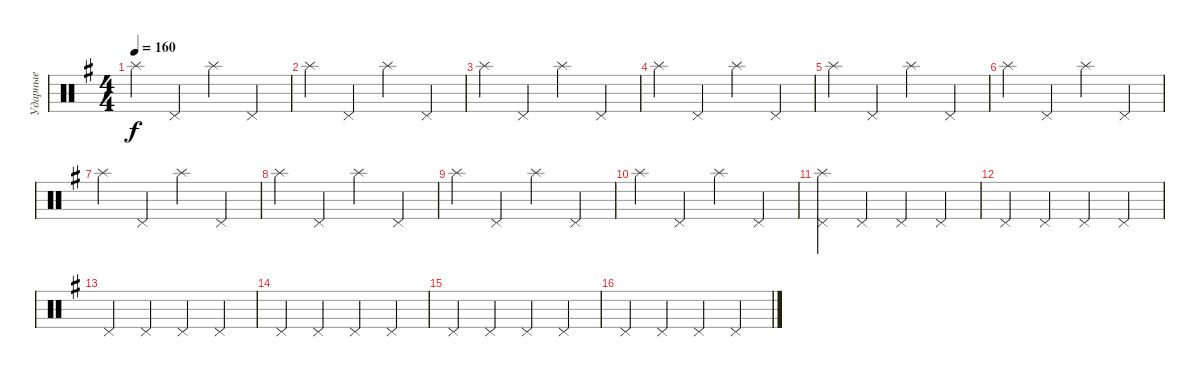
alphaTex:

\track ("Ударные" "Ударные") {instrument percussion}
\staff {score}
\articulation defaults
\ts (4 4)
\tempo 160
\clef neutral
\ks g "Splash (hit)".4{dy f} "Pedal Hi-Hat (hit)".4 "Splash (hit)".4 "Pedal Hi-Hat (hit)".4
|
"Splash (hit)".4 "Pedal Hi-Hat (hit)".4 "Splash (hit)".4 "Pedal Hi-Hat (hit)".4 |
"Splash (hit)".4 "Pedal Hi-Hat (hit)".4 "Splash (hit)".4 "Pedal Hi-Hat (hit)".4 |
"Splash (hit)".4 "Pedal Hi-Hat (hit)".4 "Splash (hit)".4 "Pedal Hi-Hat (hit)".4 |
"Splash (hit)".4 "Pedal Hi-Hat (hit)".4 "Splash (hit)".4 "Pedal Hi-Hat (hit)".4 |
"Splash (hit)".4 "Pedal Hi-Hat (hit)".4 "Splash (hit)".4 "Pedal Hi-Hat (hit)".4 |
"Splash (hit)".4 "Pedal Hi-Hat (hit)".4 "Splash (hit)".4 "Pedal Hi-Hat (hit)".4 |
"Splash (hit)".4 "Pedal Hi-Hat (hit)".4 "Splash (hit)".4 "Pedal Hi-Hat (hit)".4 |
"Splash (hit)".4 "Pedal Hi-Hat (hit)".4 "Splash (hit)".4 "Pedal Hi-Hat (hit)".4 |
"Splash (hit)".4 "Pedal Hi-Hat (hit)".4 "Splash (hit)".4 "Pedal Hi-Hat (hit)".4 |
("Pedal Hi-Hat (hit)" "Splash (hit)").4 "Pedal Hi-Hat (hit)".4 "Pedal Hi-Hat (hit)".4 "Pedal Hi-Hat (hit)".4 |
"Pedal Hi-Hat (hit)".4 "Pedal Hi-Hat (hit)".4 "Pedal Hi-Hat (hit)".4 "Pedal Hi-Hat (hit)".4 |
"Pedal Hi-Hat (hit)".4 "Pedal Hi-Hat (hit)".4 "Pedal Hi-Hat (hit)".4 "Pedal Hi-Hat (hit)".4 |
"Pedal Hi-Hat (hit)".4 "Pedal Hi-Hat (hit)".4 "Pedal Hi-Hat (hit)".4 "Pedal Hi-Hat (hit)".4 |
"Pedal Hi-Hat (hit)".4 "Pedal Hi-Hat (hit)".4 "Pedal Hi-Hat (hit)".4 "Pedal Hi-Hat (hit)".4 |
"Pedal Hi-Hat (hit)".4 "Pedal Hi-Hat (hit)".4 "Pedal Hi-Hat (hit)".4 "Pedal Hi-Hat (hit)".4
